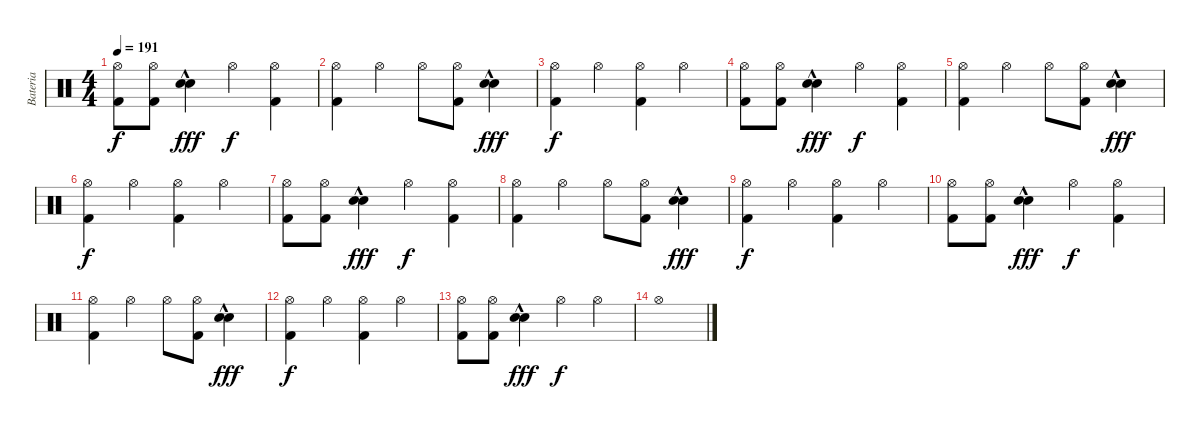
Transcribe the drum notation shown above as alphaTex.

\track ("Bateria" "Bateria") {instrument percussion}
\staff {score}
\articulation defaults
\ts (4 4)
\tempo 191
\clef neutral
\ks c
("Hi-Hat (open)" "Kick (hit) 2").8{dy f} ("Hi-Hat (open)" "Kick (hit) 2").8 ("Electric Snare (hit)"{hac} "Electric Snare (hit)"{hac}).4{dy fff} "Hi-Hat (open)".4{dy f} ("Hi-Hat (open)" "Kick (hit) 2").4 |
("Hi-Hat (open)" "Kick (hit) 2").4 "Hi-Hat (open)".4 "Hi-Hat (open)".8 ("Hi-Hat (open)" "Kick (hit) 2").8 ("Electric Snare (hit)"{hac} "Electric Snare (hit)"{hac}).4{dy fff} |
("Hi-Hat (open)" "Kick (hit) 2").4{dy f} "Hi-Hat (open)".4 ("Hi-Hat (open)" "Kick (hit) 2").4 "Hi-Hat (open)".4 |
("Hi-Hat (open)" "Kick (hit) 2").8 ("Hi-Hat (open)" "Kick (hit) 2").8 ("Electric Snare (hit)"{hac} "Electric Snare (hit)"{hac}).4{dy fff} "Hi-Hat (open)".4{dy f} ("Hi-Hat (open)" "Kick (hit) 2").4 |
("Hi-Hat (open)" "Kick (hit) 2").4 "Hi-Hat (open)".4 "Hi-Hat (open)".8 ("Hi-Hat (open)" "Kick (hit) 2").8 ("Electric Snare (hit)"{hac} "Electric Snare (hit)"{hac}).4{dy fff} |
("Hi-Hat (open)" "Kick (hit) 2").4{dy f} "Hi-Hat (open)".4 ("Hi-Hat (open)" "Kick (hit) 2").4 "Hi-Hat (open)".4 |
("Hi-Hat (open)" "Kick (hit) 2").8 ("Hi-Hat (open)" "Kick (hit) 2").8 ("Electric Snare (hit)"{hac} "Electric Snare (hit)"{hac}).4{dy fff} "Hi-Hat (open)".4{dy f} ("Hi-Hat (open)" "Kick (hit) 2").4 |
("Hi-Hat (open)" "Kick (hit) 2").4 "Hi-Hat (open)".4 "Hi-Hat (open)".8 ("Hi-Hat (open)" "Kick (hit) 2").8 ("Electric Snare (hit)"{hac} "Electric Snare (hit)"{hac}).4{dy fff} |
("Hi-Hat (open)" "Kick (hit) 2").4{dy f} "Hi-Hat (open)".4 ("Hi-Hat (open)" "Kick (hit) 2").4 "Hi-Hat (open)".4 |
("Hi-Hat (open)" "Kick (hit) 2").8 ("Hi-Hat (open)" "Kick (hit) 2").8 ("Electric Snare (hit)"{hac} "Electric Snare (hit)"{hac}).4{dy fff} "Hi-Hat (open)".4{dy f} ("Hi-Hat (open)" "Kick (hit) 2").4 |
("Hi-Hat (open)" "Kick (hit) 2").4 "Hi-Hat (open)".4 "Hi-Hat (open)".8 ("Hi-Hat (open)" "Kick (hit) 2").8 ("Electric Snare (hit)"{hac} "Electric Snare (hit)"{hac}).4{dy fff} |
("Hi-Hat (open)" "Kick (hit) 2").4{dy f} "Hi-Hat (open)".4 ("Hi-Hat (open)" "Kick (hit) 2").4 "Hi-Hat (open)".4 |
("Hi-Hat (open)" "Kick (hit) 2").8 ("Hi-Hat (open)" "Kick (hit) 2").8 ("Electric Snare (hit)"{hac} "Electric Snare (hit)"{hac}).4{dy fff} "Hi-Hat (open)".4{dy f} "Hi-Hat (open)".4 |
"Hi-Hat (open)".1
